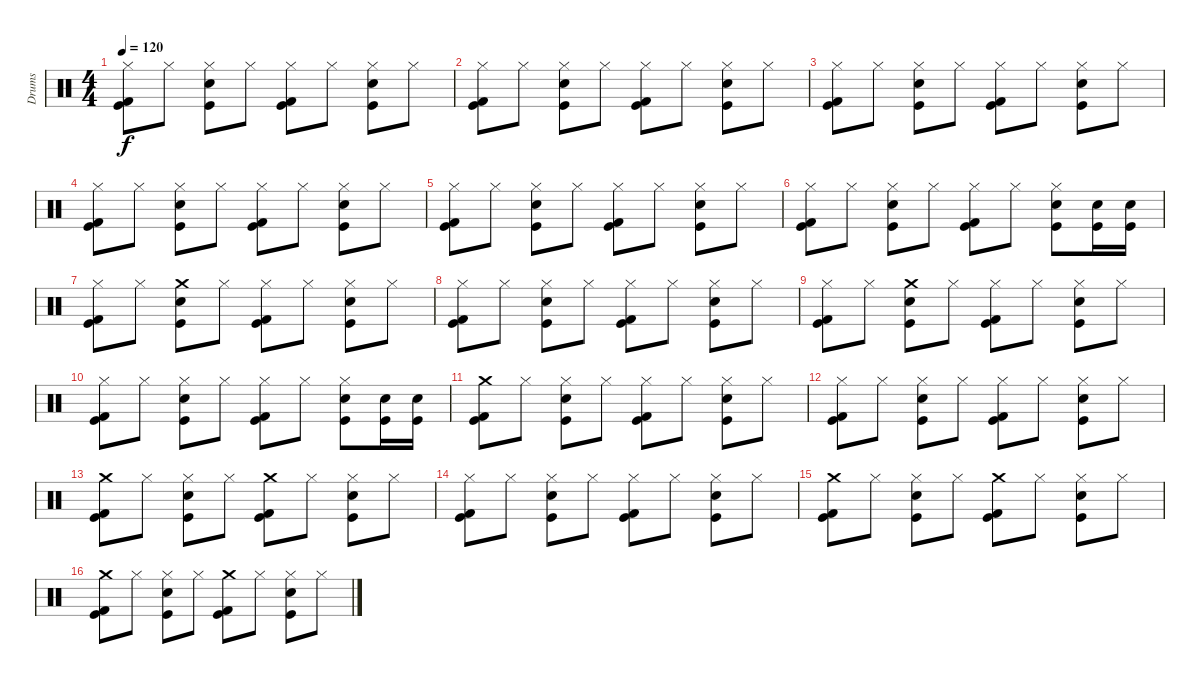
\track ("Drums" "Drums") {instrument percussion}
\staff {score}
\articulation defaults
\ts (4 4)
\tempo 120
\clef neutral
\ks c
("Hi-Hat (closed)" "Kick (hit)" "Kick (hit) 2").8{dy f} "Hi-Hat (closed)".8 ("Hi-Hat (closed)" "Kick (hit)" "Snare (hit) 2").8 "Hi-Hat (closed)".8 ("Hi-Hat (closed)" "Kick (hit)" "Kick (hit) 2").8 "Hi-Hat (closed)".8 ("Hi-Hat (closed)" "Kick (hit)" "Snare (hit) 2").8 "Hi-Hat (closed)".8 |
("Hi-Hat (closed)" "Kick (hit)" "Kick (hit) 2").8 "Hi-Hat (closed)".8 ("Hi-Hat (closed)" "Kick (hit)" "Snare (hit) 2").8 "Hi-Hat (closed)".8 ("Hi-Hat (closed)" "Kick (hit)" "Kick (hit) 2").8 "Hi-Hat (closed)".8 ("Hi-Hat (closed)" "Kick (hit)" "Snare (hit) 2").8 "Hi-Hat (closed)".8 |
("Hi-Hat (closed)" "Kick (hit)" "Kick (hit) 2").8 "Hi-Hat (closed)".8 ("Hi-Hat (closed)" "Kick (hit)" "Snare (hit) 2").8 "Hi-Hat (closed)".8 ("Hi-Hat (closed)" "Kick (hit)" "Kick (hit) 2").8 "Hi-Hat (closed)".8 ("Hi-Hat (closed)" "Kick (hit)" "Snare (hit) 2").8 "Hi-Hat (closed)".8 |
("Hi-Hat (closed)" "Kick (hit)" "Kick (hit) 2").8 "Hi-Hat (closed)".8 ("Hi-Hat (closed)" "Kick (hit)" "Snare (hit) 2").8 "Hi-Hat (closed)".8 ("Hi-Hat (closed)" "Kick (hit)" "Kick (hit) 2").8 "Hi-Hat (closed)".8 ("Hi-Hat (closed)" "Kick (hit)" "Snare (hit) 2").8 "Hi-Hat (closed)".8 |
("Hi-Hat (closed)" "Kick (hit)" "Kick (hit) 2").8 "Hi-Hat (closed)".8 ("Hi-Hat (closed)" "Kick (hit)" "Snare (hit) 2").8 "Hi-Hat (closed)".8 ("Hi-Hat (closed)" "Kick (hit)" "Kick (hit) 2").8 "Hi-Hat (closed)".8 ("Hi-Hat (closed)" "Kick (hit)" "Snare (hit) 2").8 "Hi-Hat (closed)".8 |
("Hi-Hat (closed)" "Kick (hit)" "Kick (hit) 2").8 "Hi-Hat (closed)".8 ("Hi-Hat (closed)" "Kick (hit)" "Snare (hit) 2").8 "Hi-Hat (closed)".8 ("Hi-Hat (closed)" "Kick (hit)" "Kick (hit) 2").8 "Hi-Hat (closed)".8 ("Hi-Hat (closed)" "Kick (hit)" "Snare (hit) 2").8 ("Kick (hit)" "Snare (hit) 2").16 ("Kick (hit)" "Snare (hit) 2").16 |
("Hi-Hat (closed)" "Kick (hit)" "Kick (hit) 2").8 "Hi-Hat (closed)".8 ("Kick (hit)" "Snare (hit) 2" "Crash medium (hit)").8 "Hi-Hat (closed)".8 ("Hi-Hat (closed)" "Kick (hit)" "Kick (hit) 2").8 "Hi-Hat (closed)".8 ("Hi-Hat (closed)" "Kick (hit)" "Snare (hit) 2").8 "Hi-Hat (closed)".8 |
("Hi-Hat (closed)" "Kick (hit)" "Kick (hit) 2").8 "Hi-Hat (closed)".8 ("Hi-Hat (closed)" "Kick (hit)" "Snare (hit) 2").8 "Hi-Hat (closed)".8 ("Hi-Hat (closed)" "Kick (hit)" "Kick (hit) 2").8 "Hi-Hat (closed)".8 ("Hi-Hat (closed)" "Kick (hit)" "Snare (hit) 2").8 "Hi-Hat (closed)".8 |
("Hi-Hat (closed)" "Kick (hit)" "Kick (hit) 2").8 "Hi-Hat (closed)".8 ("Kick (hit)" "Snare (hit) 2" "Crash medium (hit)").8 "Hi-Hat (closed)".8 ("Hi-Hat (closed)" "Kick (hit)" "Kick (hit) 2").8 "Hi-Hat (closed)".8 ("Hi-Hat (closed)" "Kick (hit)" "Snare (hit) 2").8 "Hi-Hat (closed)".8 |
("Hi-Hat (closed)" "Kick (hit)" "Kick (hit) 2").8 "Hi-Hat (closed)".8 ("Hi-Hat (closed)" "Kick (hit)" "Snare (hit) 2").8 "Hi-Hat (closed)".8 ("Hi-Hat (closed)" "Kick (hit)" "Kick (hit) 2").8 "Hi-Hat (closed)".8 ("Hi-Hat (closed)" "Kick (hit)" "Snare (hit) 2").8 ("Kick (hit)" "Snare (hit) 2").16 ("Kick (hit)" "Snare (hit) 2").16 |
("Kick (hit)" "Kick (hit) 2" "Crash medium (hit)").8 "Hi-Hat (closed)".8 ("Hi-Hat (closed)" "Kick (hit)" "Snare (hit) 2").8 "Hi-Hat (closed)".8 ("Hi-Hat (closed)" "Kick (hit)" "Kick (hit) 2").8 "Hi-Hat (closed)".8 ("Hi-Hat (closed)" "Kick (hit)" "Snare (hit) 2").8 "Hi-Hat (closed)".8 |
("Hi-Hat (closed)" "Kick (hit)" "Kick (hit) 2").8 "Hi-Hat (closed)".8 ("Hi-Hat (closed)" "Kick (hit)" "Snare (hit) 2").8 "Hi-Hat (closed)".8 ("Hi-Hat (closed)" "Kick (hit)" "Kick (hit) 2").8 "Hi-Hat (closed)".8 ("Hi-Hat (closed)" "Kick (hit)" "Snare (hit) 2").8 "Hi-Hat (closed)".8 |
("Kick (hit)" "Kick (hit) 2" "Crash medium (hit)").8 "Hi-Hat (closed)".8 ("Hi-Hat (closed)" "Kick (hit)" "Snare (hit) 2").8 "Hi-Hat (closed)".8 ("Kick (hit)" "Kick (hit) 2" "Crash medium (hit)").8 "Hi-Hat (closed)".8 ("Hi-Hat (closed)" "Kick (hit)" "Snare (hit) 2").8 "Hi-Hat (closed)".8 |
("Hi-Hat (closed)" "Kick (hit)" "Kick (hit) 2").8 "Hi-Hat (closed)".8 ("Hi-Hat (closed)" "Kick (hit)" "Snare (hit) 2").8 "Hi-Hat (closed)".8 ("Hi-Hat (closed)" "Kick (hit)" "Kick (hit) 2").8 "Hi-Hat (closed)".8 ("Hi-Hat (closed)" "Kick (hit)" "Snare (hit) 2").8 "Hi-Hat (closed)".8 |
("Kick (hit)" "Kick (hit) 2" "Crash medium (hit)").8 "Hi-Hat (closed)".8 ("Hi-Hat (closed)" "Kick (hit)" "Snare (hit) 2").8 "Hi-Hat (closed)".8 ("Kick (hit)" "Kick (hit) 2" "Crash medium (hit)").8 "Hi-Hat (closed)".8 ("Hi-Hat (closed)" "Kick (hit)" "Snare (hit) 2").8 "Hi-Hat (closed)".8 |
("Kick (hit)" "Kick (hit) 2" "Crash medium (hit)").8 "Hi-Hat (closed)".8 ("Hi-Hat (closed)" "Kick (hit)" "Snare (hit) 2").8 "Hi-Hat (closed)".8 ("Kick (hit)" "Kick (hit) 2" "Crash medium (hit)").8 "Hi-Hat (closed)".8 ("Hi-Hat (closed)" "Kick (hit)" "Snare (hit) 2").8 "Hi-Hat (closed)".8
